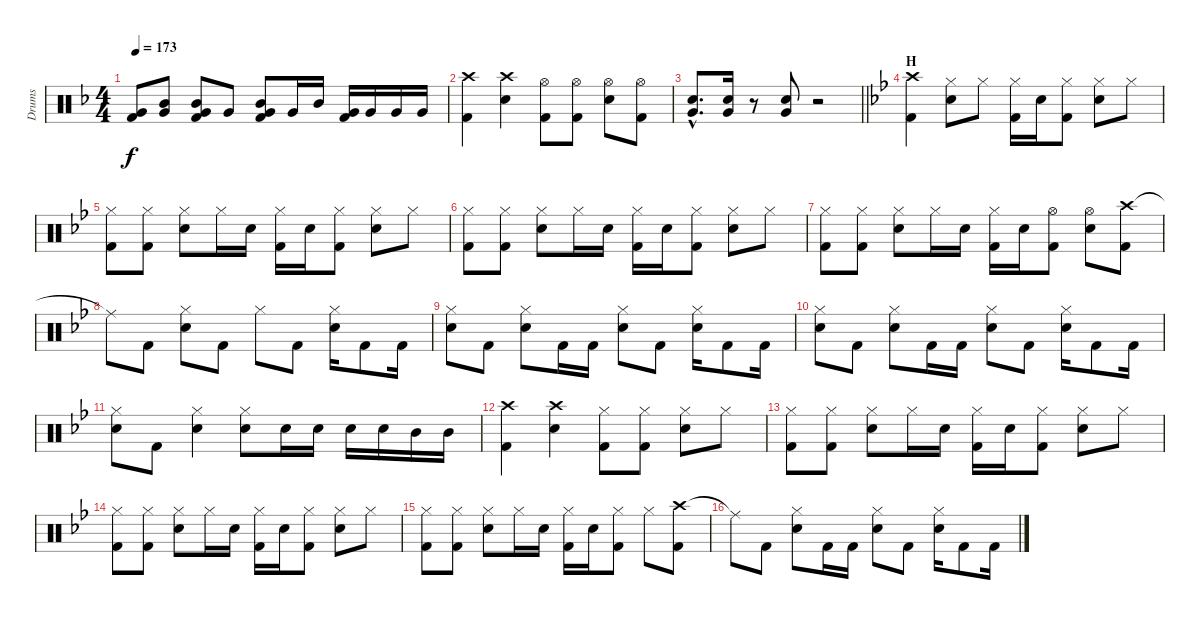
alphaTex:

\track ("Drums" "Drums") {instrument percussion}
\staff {score}
\articulation defaults
\ts (4 4)
\tempo 173
\clef neutral
\ks dminor
("Very Low Tom (hit)" "Kick (hit) 2").8{dy f} ("Mid Tom (hit)" "Very Low Tom (hit)").8 ("Mid Tom (hit)" "Very Low Tom (hit)" "Kick (hit) 2").8 "Very Low Tom (hit)".8 ("Mid Tom (hit)" "Very Low Tom (hit)" "Kick (hit) 2").8 "Very Low Tom (hit)".16 "Mid Tom (hit)".16 ("Very Low Tom (hit)" "Kick (hit) 2").16 "Very Low Tom (hit)".16 "Very Low Tom (hit)".16 "Very Low Tom (hit)".16 |
("Crash high (hit)" "Kick (hit) 2").4 ("Crash high (hit)" "Snare (hit) 2").4 ("Hi-Hat (open)" "Kick (hit) 2").8 ("Hi-Hat (open)" "Kick (hit) 2").8 ("Hi-Hat (open)" "Snare (hit) 2").8 ("Hi-Hat (open)" "Kick (hit) 2").8 |
\barLineRight lightlight
("Snare (hit) 2"{hac} "Very Low Tom (hit)"{hac}).8{d} ("Snare (hit) 2" "Very Low Tom (hit)").16 r.8 ("Snare (hit) 2" "Very Low Tom (hit)").8 r.2 |
\section ("" "H")
\ks gminor
("Crash high (hit)" "Kick (hit) 2").4 ("Hi-Hat (closed)" "Snare (hit) 2").8 "Hi-Hat (closed)".8 ("Hi-Hat (closed)" "Kick (hit) 2").16 "Snare (hit) 2".16 ("Hi-Hat (closed)" "Kick (hit) 2").8 ("Hi-Hat (closed)" "Snare (hit) 2").8 "Hi-Hat (closed)".8 |
("Hi-Hat (closed)" "Kick (hit) 2").8 ("Hi-Hat (closed)" "Kick (hit) 2").8 ("Hi-Hat (closed)" "Snare (hit) 2").8 "Hi-Hat (closed)".16 "Snare (hit) 2".16 ("Hi-Hat (closed)" "Kick (hit) 2").16 "Snare (hit) 2".16 ("Hi-Hat (closed)" "Kick (hit) 2").8 ("Hi-Hat (closed)" "Snare (hit) 2").8 "Hi-Hat (closed)".8 |
("Hi-Hat (closed)" "Kick (hit) 2").8 ("Hi-Hat (closed)" "Kick (hit) 2").8 ("Hi-Hat (closed)" "Snare (hit) 2").8 "Hi-Hat (closed)".16 "Snare (hit) 2".16 ("Hi-Hat (closed)" "Kick (hit) 2").16 "Snare (hit) 2".16 ("Hi-Hat (closed)" "Kick (hit) 2").8 ("Hi-Hat (closed)" "Snare (hit) 2").8 "Hi-Hat (closed)".8 |
("Hi-Hat (closed)" "Kick (hit) 2").8 ("Hi-Hat (closed)" "Kick (hit) 2").8 ("Hi-Hat (closed)" "Snare (hit) 2").8 "Hi-Hat (closed)".16 "Snare (hit) 2".16 ("Hi-Hat (closed)" "Kick (hit) 2").16 "Snare (hit) 2".16 ("Hi-Hat (open)" "Kick (hit) 2").8 ("Hi-Hat (open)" "Snare (hit) 2").8 ("Crash high (hit)" "Kick (hit) 2").8 |
"Ride (middle)"{t}.8 "Kick (hit) 2".8 ("Hi-Hat (closed)" "Snare (hit) 2").8 "Kick (hit) 2".8 "Hi-Hat (closed)".8 "Kick (hit) 2".8 ("Hi-Hat (closed)" "Snare (hit) 2").16 "Kick (hit) 2".8 "Kick (hit) 2".16 |
("Hi-Hat (closed)" "Snare (hit) 2").8 "Kick (hit) 2".8 ("Hi-Hat (closed)" "Snare (hit) 2").8 "Kick (hit) 2".16 "Kick (hit) 2".16 ("Hi-Hat (closed)" "Snare (hit) 2").8 "Kick (hit) 2".8 ("Hi-Hat (closed)" "Snare (hit) 2").16 "Kick (hit) 2".8 "Kick (hit) 2".16 |
("Hi-Hat (closed)" "Snare (hit) 2").8 "Kick (hit) 2".8 ("Hi-Hat (closed)" "Snare (hit) 2").8 "Kick (hit) 2".16 "Kick (hit) 2".16 ("Hi-Hat (closed)" "Snare (hit) 2").8 "Kick (hit) 2".8 ("Hi-Hat (closed)" "Snare (hit) 2").16 "Kick (hit) 2".8 "Kick (hit) 2".16 |
("Hi-Hat (closed)" "Snare (hit) 2").8 "Kick (hit) 2".8 ("Hi-Hat (closed)" "Snare (hit) 2").4 ("Hi-Hat (closed)" "Snare (hit) 2").8 "Snare (hit) 2".16 "Snare (hit) 2".16 "Snare (hit) 2".16 "Snare (hit) 2".16 "Mid Tom (hit)".16 "Mid Tom (hit)".16 |
("Crash high (hit)" "Kick (hit) 2").4 ("Crash high (hit)" "Snare (hit) 2").4 ("Hi-Hat (closed)" "Kick (hit) 2").8 ("Hi-Hat (closed)" "Kick (hit) 2").8 ("Hi-Hat (closed)" "Snare (hit) 2").8 "Hi-Hat (closed)".8 |
("Hi-Hat (closed)" "Kick (hit) 2").8 ("Hi-Hat (closed)" "Kick (hit) 2").8 ("Hi-Hat (closed)" "Snare (hit) 2").8 "Hi-Hat (closed)".16 "Snare (hit) 2".16 ("Hi-Hat (closed)" "Kick (hit) 2").16 "Snare (hit) 2".16 ("Hi-Hat (closed)" "Kick (hit) 2").8 ("Hi-Hat (closed)" "Snare (hit) 2").8 "Hi-Hat (closed)".8 |
("Hi-Hat (closed)" "Kick (hit) 2").8 ("Hi-Hat (closed)" "Kick (hit) 2").8 ("Hi-Hat (closed)" "Snare (hit) 2").8 "Hi-Hat (closed)".16 "Snare (hit) 2".16 ("Hi-Hat (closed)" "Kick (hit) 2").16 "Snare (hit) 2".16 ("Hi-Hat (closed)" "Kick (hit) 2").8 ("Hi-Hat (closed)" "Snare (hit) 2").8 "Hi-Hat (closed)".8 |
("Hi-Hat (closed)" "Kick (hit) 2").8 ("Hi-Hat (closed)" "Kick (hit) 2").8 ("Hi-Hat (closed)" "Snare (hit) 2").8 "Hi-Hat (closed)".16 "Snare (hit) 2".16 ("Hi-Hat (closed)" "Kick (hit) 2").16 "Snare (hit) 2".16 ("Hi-Hat (closed)" "Kick (hit) 2").8 "Hi-Hat (closed)".8 ("Crash high (hit)" "Kick (hit) 2").8 |
"Ride (middle)"{t}.8 "Kick (hit) 2".8 ("Hi-Hat (closed)" "Snare (hit) 2").8 "Kick (hit) 2".16 "Kick (hit) 2".16 ("Hi-Hat (closed)" "Snare (hit) 2").8 "Kick (hit) 2".8 ("Hi-Hat (closed)" "Snare (hit) 2").16 "Kick (hit) 2".8 "Kick (hit) 2".16
